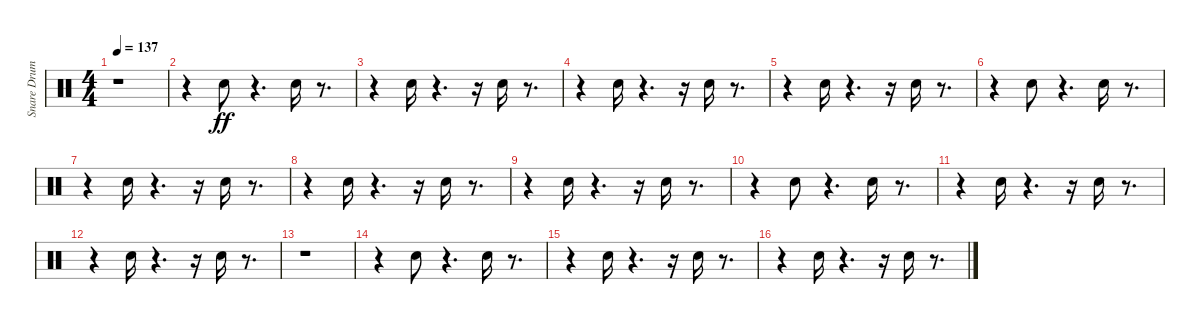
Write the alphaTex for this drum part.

\track ("Snare Drum" "Snare Drum") {instrument percussion}
\staff {score}
\articulation defaults
\ts (4 4)
\tempo 137
\clef neutral
\ks c
r.1{dy ff} |
r.4 "Electric Snare (hit)".8 r.4{d} "Electric Snare (hit)".16 r.8{d} |
r.4 "Electric Snare (hit)".16 r.4{d} r.16 "Electric Snare (hit)".16 r.8{d} |
r.4 "Electric Snare (hit)".16 r.4{d} r.16 "Electric Snare (hit)".16 r.8{d} |
r.4 "Electric Snare (hit)".16 r.4{d} r.16 "Electric Snare (hit)".16 r.8{d} |
r.4 "Electric Snare (hit)".8 r.4{d} "Electric Snare (hit)".16 r.8{d} |
r.4 "Electric Snare (hit)".16 r.4{d} r.16 "Electric Snare (hit)".16 r.8{d} |
r.4 "Electric Snare (hit)".16 r.4{d} r.16 "Electric Snare (hit)".16 r.8{d} |
r.4 "Electric Snare (hit)".16 r.4{d} r.16 "Electric Snare (hit)".16 r.8{d} |
r.4 "Electric Snare (hit)".8 r.4{d} "Electric Snare (hit)".16 r.8{d} |
r.4 "Electric Snare (hit)".16 r.4{d} r.16 "Electric Snare (hit)".16 r.8{d} |
r.4 "Electric Snare (hit)".16 r.4{d} r.16 "Electric Snare (hit)".16 r.8{d} |
r.1 |
r.4 "Electric Snare (hit)".8 r.4{d} "Electric Snare (hit)".16 r.8{d} |
r.4 "Electric Snare (hit)".16 r.4{d} r.16 "Electric Snare (hit)".16 r.8{d} |
r.4 "Electric Snare (hit)".16 r.4{d} r.16 "Electric Snare (hit)".16 r.8{d}
